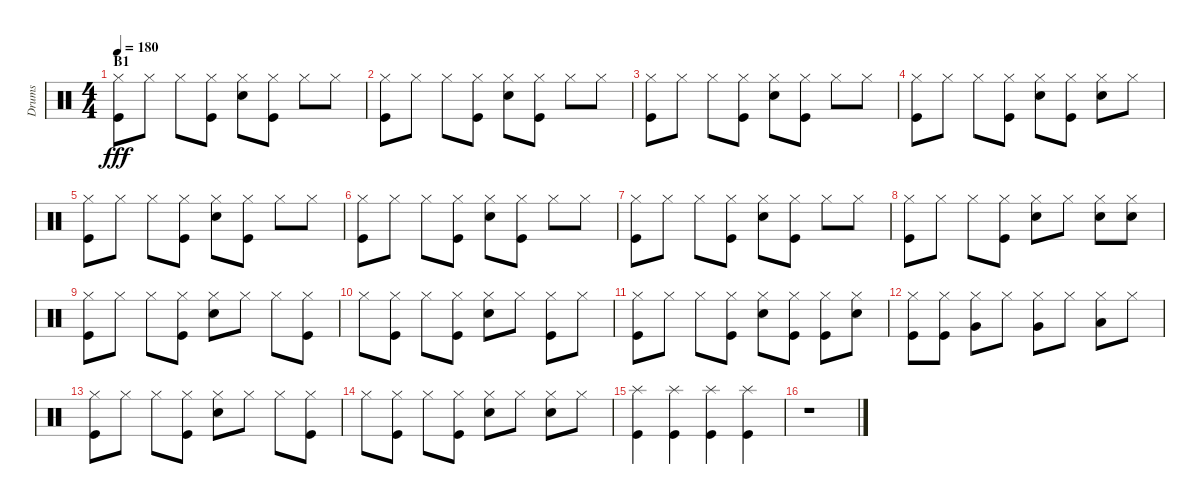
\track ("Drums" "Drums") {instrument percussion}
\staff {score}
\articulation defaults
\ts (4 4)
\section ("" "B1")
\tempo 180
\clef neutral
\ks c
("Hi-Hat (closed)" "Kick (hit)").8{dy fff} "Hi-Hat (closed)".8 "Hi-Hat (closed)".8 ("Hi-Hat (closed)" "Kick (hit)").8 ("Hi-Hat (closed)" "Snare (hit) 2").8 ("Hi-Hat (closed)" "Kick (hit)").8 "Hi-Hat (closed)".8 "Hi-Hat (closed)".8 |
("Hi-Hat (closed)" "Kick (hit)").8 "Hi-Hat (closed)".8 "Hi-Hat (closed)".8 ("Hi-Hat (closed)" "Kick (hit)").8 ("Hi-Hat (closed)" "Snare (hit) 2").8 ("Hi-Hat (closed)" "Kick (hit)").8 "Hi-Hat (closed)".8 "Hi-Hat (closed)".8 |
("Hi-Hat (closed)" "Kick (hit)").8 "Hi-Hat (closed)".8 "Hi-Hat (closed)".8 ("Hi-Hat (closed)" "Kick (hit)").8 ("Hi-Hat (closed)" "Snare (hit) 2").8 ("Hi-Hat (closed)" "Kick (hit)").8 "Hi-Hat (closed)".8 "Hi-Hat (closed)".8 |
("Hi-Hat (closed)" "Kick (hit)").8 "Hi-Hat (closed)".8 "Hi-Hat (closed)".8 ("Hi-Hat (closed)" "Kick (hit)").8 ("Hi-Hat (closed)" "Snare (hit) 2").8 ("Hi-Hat (closed)" "Kick (hit)").8 ("Hi-Hat (closed)" "Snare (hit) 2").8 "Hi-Hat (closed)".8 |
("Hi-Hat (closed)" "Kick (hit)").8 "Hi-Hat (closed)".8 "Hi-Hat (closed)".8 ("Hi-Hat (closed)" "Kick (hit)").8 ("Hi-Hat (closed)" "Snare (hit) 2").8 ("Hi-Hat (closed)" "Kick (hit)").8 "Hi-Hat (closed)".8 "Hi-Hat (closed)".8 |
("Hi-Hat (closed)" "Kick (hit)").8 "Hi-Hat (closed)".8 "Hi-Hat (closed)".8 ("Hi-Hat (closed)" "Kick (hit)").8 ("Hi-Hat (closed)" "Snare (hit) 2").8 ("Hi-Hat (closed)" "Kick (hit)").8 "Hi-Hat (closed)".8 "Hi-Hat (closed)".8 |
("Hi-Hat (closed)" "Kick (hit)").8 "Hi-Hat (closed)".8 "Hi-Hat (closed)".8 ("Hi-Hat (closed)" "Kick (hit)").8 ("Hi-Hat (closed)" "Snare (hit) 2").8 ("Hi-Hat (closed)" "Kick (hit)").8 "Hi-Hat (closed)".8 "Hi-Hat (closed)".8 |
("Hi-Hat (closed)" "Kick (hit)").8 "Hi-Hat (closed)".8 "Hi-Hat (closed)".8 ("Hi-Hat (closed)" "Kick (hit)").8 ("Hi-Hat (closed)" "Snare (hit) 2").8 "Hi-Hat (closed)".8 ("Hi-Hat (closed)" "Snare (hit) 2").8 ("Hi-Hat (closed)" "Snare (hit) 2").8 |
("Hi-Hat (closed)" "Kick (hit)").8 "Hi-Hat (closed)".8 "Hi-Hat (closed)".8 ("Hi-Hat (closed)" "Kick (hit)").8 ("Hi-Hat (closed)" "Snare (hit) 2").8 "Hi-Hat (closed)".8 "Hi-Hat (closed)".8 ("Hi-Hat (closed)" "Kick (hit)").8 |
"Hi-Hat (closed)".8 ("Hi-Hat (closed)" "Kick (hit)").8 "Hi-Hat (closed)".8 ("Hi-Hat (closed)" "Kick (hit)").8 ("Hi-Hat (closed)" "Snare (hit) 2").8 "Hi-Hat (closed)".8 ("Hi-Hat (closed)" "Kick (hit)").8 "Hi-Hat (closed)".8 |
("Hi-Hat (closed)" "Kick (hit)").8 "Hi-Hat (closed)".8 "Hi-Hat (closed)".8 ("Hi-Hat (closed)" "Kick (hit)").8 ("Hi-Hat (closed)" "Snare (hit) 2").8 ("Hi-Hat (closed)" "Kick (hit)").8 ("Hi-Hat (closed)" "Kick (hit)").8 ("Hi-Hat (closed)" "Snare (hit) 2").8 |
("Hi-Hat (closed)" "Kick (hit)").8 ("Hi-Hat (closed)" "Kick (hit)").8 ("Hi-Hat (closed)" "Very Low Tom (hit)").8 "Hi-Hat (closed)".8 ("Hi-Hat (closed)" "Very Low Tom (hit)").8 "Hi-Hat (closed)".8 ("Hi-Hat (closed)" "Low Floor Tom (hit)").8 "Hi-Hat (closed)".8 |
("Hi-Hat (closed)" "Kick (hit)").8 "Hi-Hat (closed)".8 "Hi-Hat (closed)".8 ("Hi-Hat (closed)" "Kick (hit)").8 ("Hi-Hat (closed)" "Snare (hit) 2").8 "Hi-Hat (closed)".8 "Hi-Hat (closed)".8 ("Hi-Hat (closed)" "Kick (hit)").8 |
"Hi-Hat (closed)".8 ("Hi-Hat (closed)" "Kick (hit)").8 "Hi-Hat (closed)".8 ("Hi-Hat (closed)" "Kick (hit)").8 ("Hi-Hat (closed)" "Snare (hit) 2").8 "Hi-Hat (closed)".8 ("Hi-Hat (closed)" "Snare (hit) 2").8 "Hi-Hat (closed)".8 |
("Splash (hit)" "Kick (hit)").4 ("Splash (hit)" "Kick (hit)").4 ("Splash (hit)" "Kick (hit)").4 ("Splash (hit)" "Kick (hit)").4 |
r.1
